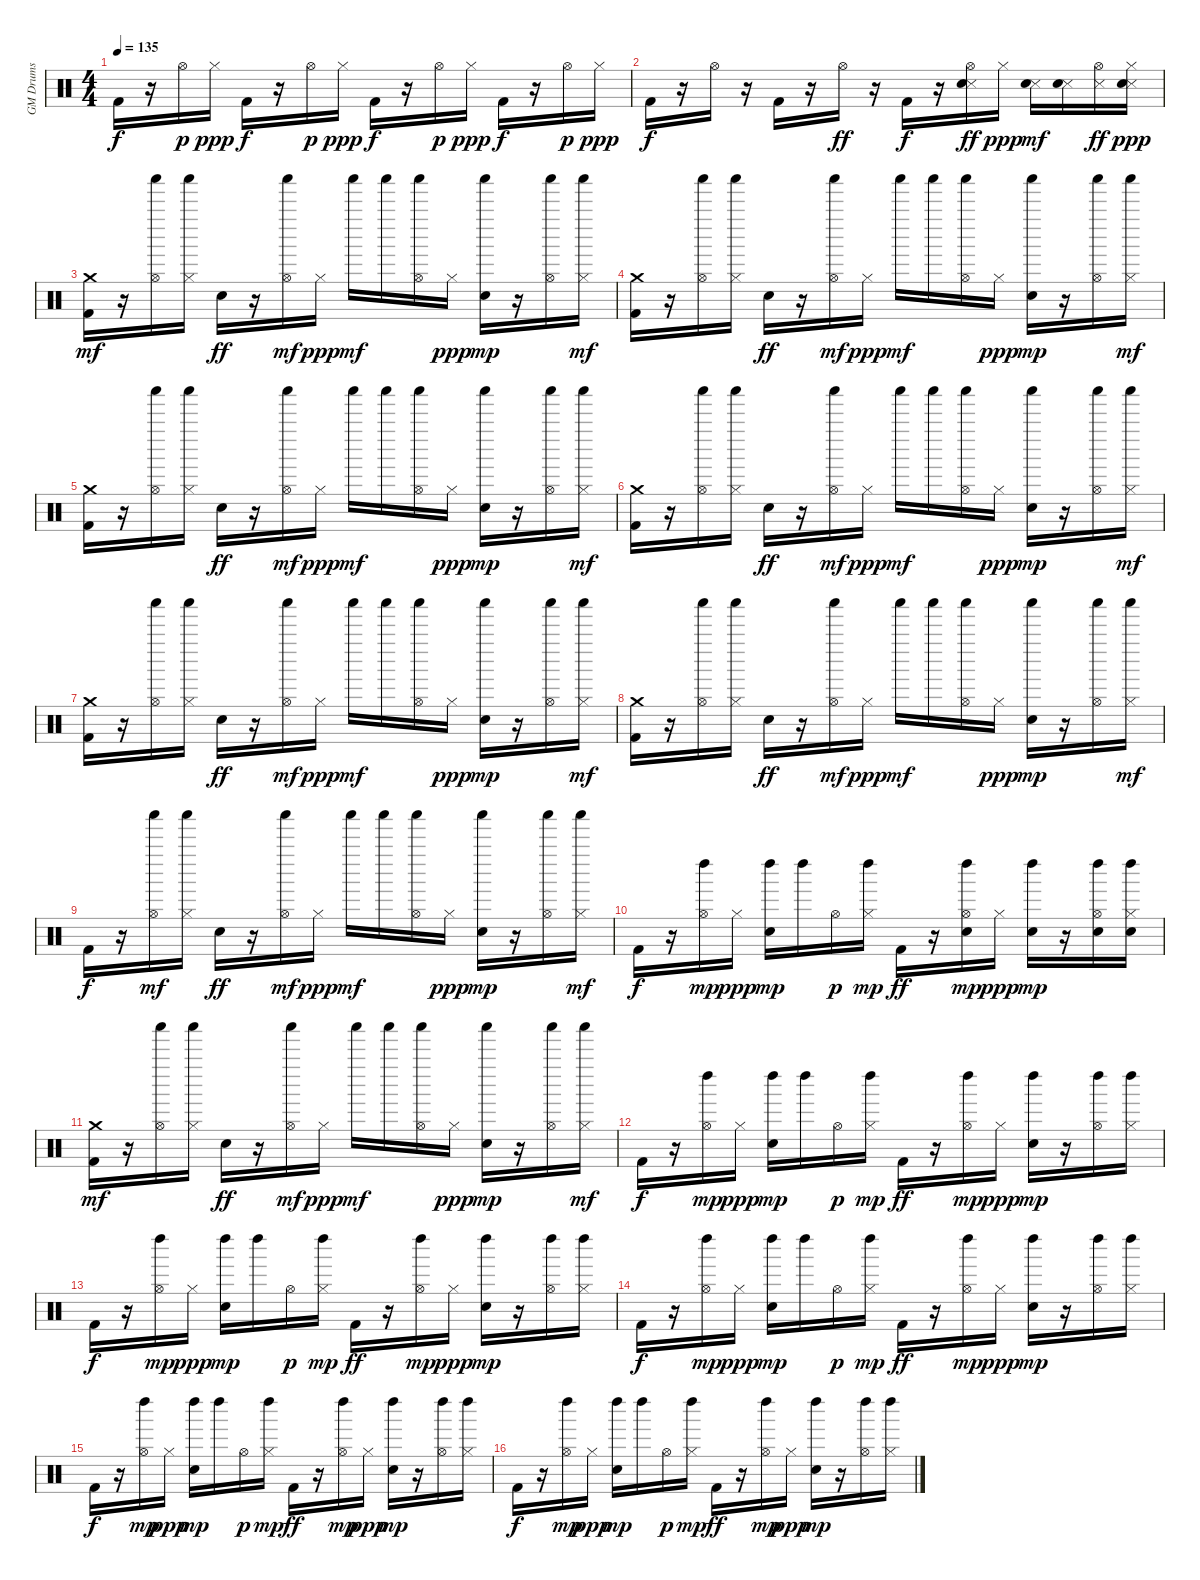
\track ("GM Drums" "GM Drums") {instrument percussion}
\staff {score}
\articulation defaults
\ts (4 4)
\tempo 135
\clef neutral
\ks c "Kick (hit) 2".16{dy f}
r.16 "Hi-Hat (open)".16{dy p} "Hi-Hat (closed)".16{dy ppp} "Kick (hit) 2".16{dy f} r.16 "Hi-Hat (open)".16{dy p} "Hi-Hat (closed)".16{dy ppp} "Kick (hit) 2".16{dy f} r.16 "Hi-Hat (open)".16{dy p} "Hi-Hat (closed)".16{dy ppp} "Kick (hit) 2".16{dy f} r.16 "Hi-Hat (open)".16{dy p} "Hi-Hat (closed)".16{dy ppp} |
"Kick (hit) 2".16{dy f} r.16 "Hi-Hat (open)".16 r.16 "Kick (hit) 2".16 r.16 "Hi-Hat (open)".16{dy ff} r.16 "Kick (hit) 2".16{dy f} r.16 ("Metronome (hit)" "Electric Snare (hit)" "Hi-Hat (open)").16{dy ff} "Hi-Hat (closed)".16{dy ppp} ("Metronome (hit)" "Electric Snare (hit)").16{dy mf} ("Metronome (hit)" "Electric Snare (hit)").16 ("Metronome (hit)" "Hi-Hat (open)").16{dy ff} ("Metronome (hit)" "Electric Snare (hit)" "Hi-Hat (closed)").16{dy ppp} |
("Kick (hit) 2" "Crash medium (hit)").16{dy mf} r.16 ("Hi-Hat (open)" "Shaker (hit)").16 ("Hi-Hat (closed)" "Shaker (hit)").16 "Snare (hit) 2".16{dy ff} r.16 ("Hi-Hat (open)" "Shaker (hit)").16{dy mf} "Hi-Hat (closed)".16{dy ppp} "Shaker (hit)".16{dy mf} "Shaker (hit)".16 ("Hi-Hat (open)" "Shaker (hit)").16 "Hi-Hat (closed)".16{dy ppp} ("Snare (hit) 2" "Shaker (hit)").16{dy mp} r.16 ("Hi-Hat (open)" "Shaker (hit)").16 ("Hi-Hat (closed)" "Shaker (hit)").16{dy mf} |
("Kick (hit) 2" "Crash medium (hit)").16 r.16 ("Hi-Hat (open)" "Shaker (hit)").16 ("Hi-Hat (closed)" "Shaker (hit)").16 "Snare (hit) 2".16{dy ff} r.16 ("Hi-Hat (open)" "Shaker (hit)").16{dy mf} "Hi-Hat (closed)".16{dy ppp} "Shaker (hit)".16{dy mf} "Shaker (hit)".16 ("Hi-Hat (open)" "Shaker (hit)").16 "Hi-Hat (closed)".16{dy ppp} ("Snare (hit) 2" "Shaker (hit)").16{dy mp} r.16 ("Hi-Hat (open)" "Shaker (hit)").16 ("Hi-Hat (closed)" "Shaker (hit)").16{dy mf} |
("Kick (hit) 2" "Crash medium (hit)").16 r.16 ("Hi-Hat (open)" "Shaker (hit)").16 ("Hi-Hat (closed)" "Shaker (hit)").16 "Snare (hit) 2".16{dy ff} r.16 ("Hi-Hat (open)" "Shaker (hit)").16{dy mf} "Hi-Hat (closed)".16{dy ppp} "Shaker (hit)".16{dy mf} "Shaker (hit)".16 ("Hi-Hat (open)" "Shaker (hit)").16 "Hi-Hat (closed)".16{dy ppp} ("Snare (hit) 2" "Shaker (hit)").16{dy mp} r.16 ("Hi-Hat (open)" "Shaker (hit)").16 ("Hi-Hat (closed)" "Shaker (hit)").16{dy mf} |
("Kick (hit) 2" "Crash medium (hit)").16 r.16 ("Hi-Hat (open)" "Shaker (hit)").16 ("Hi-Hat (closed)" "Shaker (hit)").16 "Snare (hit) 2".16{dy ff} r.16 ("Hi-Hat (open)" "Shaker (hit)").16{dy mf} "Hi-Hat (closed)".16{dy ppp} "Shaker (hit)".16{dy mf} "Shaker (hit)".16 ("Hi-Hat (open)" "Shaker (hit)").16 "Hi-Hat (closed)".16{dy ppp} ("Snare (hit) 2" "Shaker (hit)").16{dy mp} r.16 ("Hi-Hat (open)" "Shaker (hit)").16 ("Hi-Hat (closed)" "Shaker (hit)").16{dy mf} |
("Kick (hit) 2" "Crash medium (hit)").16 r.16 ("Hi-Hat (open)" "Shaker (hit)").16 ("Hi-Hat (closed)" "Shaker (hit)").16 "Snare (hit) 2".16{dy ff} r.16 ("Hi-Hat (open)" "Shaker (hit)").16{dy mf} "Hi-Hat (closed)".16{dy ppp} "Shaker (hit)".16{dy mf} "Shaker (hit)".16 ("Hi-Hat (open)" "Shaker (hit)").16 "Hi-Hat (closed)".16{dy ppp} ("Snare (hit) 2" "Shaker (hit)").16{dy mp} r.16 ("Hi-Hat (open)" "Shaker (hit)").16 ("Hi-Hat (closed)" "Shaker (hit)").16{dy mf} |
("Kick (hit) 2" "Crash medium (hit)").16 r.16 ("Hi-Hat (open)" "Shaker (hit)").16 ("Hi-Hat (closed)" "Shaker (hit)").16 "Snare (hit) 2".16{dy ff} r.16 ("Hi-Hat (open)" "Shaker (hit)").16{dy mf} "Hi-Hat (closed)".16{dy ppp} "Shaker (hit)".16{dy mf} "Shaker (hit)".16 ("Hi-Hat (open)" "Shaker (hit)").16 "Hi-Hat (closed)".16{dy ppp} ("Snare (hit) 2" "Shaker (hit)").16{dy mp} r.16 ("Hi-Hat (open)" "Shaker (hit)").16 ("Hi-Hat (closed)" "Shaker (hit)").16{dy mf} |
"Kick (hit) 2".16{dy f} r.16 ("Hi-Hat (open)" "Shaker (hit)").16{dy mf} ("Hi-Hat (closed)" "Shaker (hit)").16 "Snare (hit) 2".16{dy ff} r.16 ("Hi-Hat (open)" "Shaker (hit)").16{dy mf} "Hi-Hat (closed)".16{dy ppp} "Shaker (hit)".16{dy mf} "Shaker (hit)".16 ("Hi-Hat (open)" "Shaker (hit)").16 "Hi-Hat (closed)".16{dy ppp} ("Snare (hit) 2" "Shaker (hit)").16{dy mp} r.16 ("Hi-Hat (open)" "Shaker (hit)").16 ("Hi-Hat (closed)" "Shaker (hit)").16{dy mf} |
"Kick (hit) 2".16{dy f} r.16 ("Hi-Hat (open)" "Left Maraca (hit)").16{dy mp} "Hi-Hat (closed)".16{dy ppp} ("Snare (hit) 2" "Left Maraca (hit)").16{dy mp} "Left Maraca (hit)".16 "Hi-Hat (open)".16{dy p} ("Hi-Hat (closed)" "Left Maraca (hit)").16{dy mp} "Kick (hit) 2".16{dy ff} r.16 ("Snare (hit) 2" "Hi-Hat (open)" "Left Maraca (hit)").16{dy mp} "Hi-Hat (closed)".16{dy ppp} ("Snare (hit) 2" "Left Maraca (hit)").16{dy mp} r.16 ("Snare (hit) 2" "Hi-Hat (open)" "Left Maraca (hit)").16 ("Snare (hit) 2" "Hi-Hat (closed)" "Left Maraca (hit)").16 |
("Kick (hit) 2" "Crash medium (hit)").16{dy mf} r.16 ("Hi-Hat (open)" "Shaker (hit)").16 ("Hi-Hat (closed)" "Shaker (hit)").16 "Snare (hit) 2".16{dy ff} r.16 ("Hi-Hat (open)" "Shaker (hit)").16{dy mf} "Hi-Hat (closed)".16{dy ppp} "Shaker (hit)".16{dy mf} "Shaker (hit)".16 ("Hi-Hat (open)" "Shaker (hit)").16 "Hi-Hat (closed)".16{dy ppp} ("Snare (hit) 2" "Shaker (hit)").16{dy mp} r.16 ("Hi-Hat (open)" "Shaker (hit)").16 ("Hi-Hat (closed)" "Shaker (hit)").16{dy mf} |
"Kick (hit) 2".16{dy f} r.16 ("Hi-Hat (open)" "Left Maraca (hit)").16{dy mp} "Hi-Hat (closed)".16{dy ppp} ("Snare (hit) 2" "Left Maraca (hit)").16{dy mp} "Left Maraca (hit)".16 "Hi-Hat (open)".16{dy p} ("Hi-Hat (closed)" "Left Maraca (hit)").16{dy mp} "Kick (hit) 2".16{dy ff} r.16 ("Hi-Hat (open)" "Left Maraca (hit)").16{dy mp} "Hi-Hat (closed)".16{dy ppp} ("Snare (hit) 2" "Left Maraca (hit)").16{dy mp} r.16 ("Hi-Hat (open)" "Left Maraca (hit)").16 ("Hi-Hat (closed)" "Left Maraca (hit)").16 |
"Kick (hit) 2".16{dy f} r.16 ("Hi-Hat (open)" "Left Maraca (hit)").16{dy mp} "Hi-Hat (closed)".16{dy ppp} ("Snare (hit) 2" "Left Maraca (hit)").16{dy mp} "Left Maraca (hit)".16 "Hi-Hat (open)".16{dy p} ("Hi-Hat (closed)" "Left Maraca (hit)").16{dy mp} "Kick (hit) 2".16{dy ff} r.16 ("Hi-Hat (open)" "Left Maraca (hit)").16{dy mp} "Hi-Hat (closed)".16{dy ppp} ("Snare (hit) 2" "Left Maraca (hit)").16{dy mp} r.16 ("Hi-Hat (open)" "Left Maraca (hit)").16 ("Hi-Hat (closed)" "Left Maraca (hit)").16 |
"Kick (hit) 2".16{dy f} r.16 ("Hi-Hat (open)" "Left Maraca (hit)").16{dy mp} "Hi-Hat (closed)".16{dy ppp} ("Snare (hit) 2" "Left Maraca (hit)").16{dy mp} "Left Maraca (hit)".16 "Hi-Hat (open)".16{dy p} ("Hi-Hat (closed)" "Left Maraca (hit)").16{dy mp} "Kick (hit) 2".16{dy ff} r.16 ("Hi-Hat (open)" "Left Maraca (hit)").16{dy mp} "Hi-Hat (closed)".16{dy ppp} ("Snare (hit) 2" "Left Maraca (hit)").16{dy mp} r.16 ("Hi-Hat (open)" "Left Maraca (hit)").16 ("Hi-Hat (closed)" "Left Maraca (hit)").16 |
"Kick (hit) 2".16{dy f} r.16 ("Hi-Hat (open)" "Left Maraca (hit)").16{dy mp} "Hi-Hat (closed)".16{dy ppp} ("Snare (hit) 2" "Left Maraca (hit)").16{dy mp} "Left Maraca (hit)".16 "Hi-Hat (open)".16{dy p} ("Hi-Hat (closed)" "Left Maraca (hit)").16{dy mp} "Kick (hit) 2".16{dy ff} r.16 ("Hi-Hat (open)" "Left Maraca (hit)").16{dy mp} "Hi-Hat (closed)".16{dy ppp} ("Snare (hit) 2" "Left Maraca (hit)").16{dy mp} r.16 ("Hi-Hat (open)" "Left Maraca (hit)").16 ("Hi-Hat (closed)" "Left Maraca (hit)").16 |
"Kick (hit) 2".16{dy f} r.16 ("Hi-Hat (open)" "Left Maraca (hit)").16{dy mp} "Hi-Hat (closed)".16{dy ppp} ("Snare (hit) 2" "Left Maraca (hit)").16{dy mp} "Left Maraca (hit)".16 "Hi-Hat (open)".16{dy p} ("Hi-Hat (closed)" "Left Maraca (hit)").16{dy mp} "Kick (hit) 2".16{dy ff} r.16 ("Hi-Hat (open)" "Left Maraca (hit)").16{dy mp} "Hi-Hat (closed)".16{dy ppp} ("Snare (hit) 2" "Left Maraca (hit)").16{dy mp} r.16 ("Hi-Hat (open)" "Left Maraca (hit)").16 ("Hi-Hat (closed)" "Left Maraca (hit)").16
